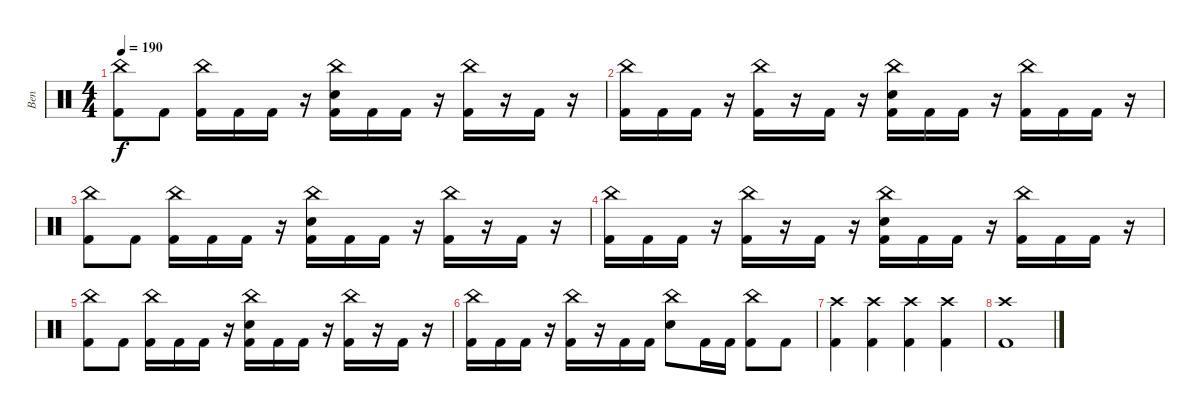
\track ("Ben" "Ben") {instrument percussion}
\staff {score}
\articulation defaults
\ts (4 4)
\tempo 190
\clef neutral
\ks c
("China (hit)" "Kick (hit) 2").8{dy f} "Kick (hit) 2".8 ("China (hit)" "Kick (hit) 2").16 "Kick (hit) 2".16 "Kick (hit) 2".16 r.16 ("China (hit)" "Electric Snare (hit)" "Kick (hit) 2").16 "Kick (hit) 2".16 "Kick (hit) 2".16 r.16 ("China (hit)" "Kick (hit) 2").16 r.16 "Kick (hit) 2".16 r.16 |
("China (hit)" "Kick (hit) 2").16 "Kick (hit) 2".16 "Kick (hit) 2".16 r.16 ("China (hit)" "Kick (hit) 2").16 r.16 "Kick (hit) 2".16 r.16 ("China (hit)" "Electric Snare (hit)" "Kick (hit) 2").16 "Kick (hit) 2".16 "Kick (hit) 2".16 r.16 ("China (hit)" "Kick (hit) 2").16 "Kick (hit) 2".16 "Kick (hit) 2".16 r.16 |
("China (hit)" "Kick (hit) 2").8 "Kick (hit) 2".8 ("China (hit)" "Kick (hit) 2").16 "Kick (hit) 2".16 "Kick (hit) 2".16 r.16 ("China (hit)" "Electric Snare (hit)" "Kick (hit) 2").16 "Kick (hit) 2".16 "Kick (hit) 2".16 r.16 ("China (hit)" "Kick (hit) 2").16 r.16 "Kick (hit) 2".16 r.16 |
("China (hit)" "Kick (hit) 2").16 "Kick (hit) 2".16 "Kick (hit) 2".16 r.16 ("China (hit)" "Kick (hit) 2").16 r.16 "Kick (hit) 2".16 r.16 ("China (hit)" "Electric Snare (hit)" "Kick (hit) 2").16 "Kick (hit) 2".16 "Kick (hit) 2".16 r.16 ("China (hit)" "Kick (hit) 2").16 "Kick (hit) 2".16 "Kick (hit) 2".16 r.16 |
("China (hit)" "Kick (hit) 2").8 "Kick (hit) 2".8 ("China (hit)" "Kick (hit) 2").16 "Kick (hit) 2".16 "Kick (hit) 2".16 r.16 ("China (hit)" "Electric Snare (hit)" "Kick (hit) 2").16 "Kick (hit) 2".16 "Kick (hit) 2".16 r.16 ("China (hit)" "Kick (hit) 2").16 r.16 "Kick (hit) 2".16 r.16 |
("China (hit)" "Kick (hit) 2").16 "Kick (hit) 2".16 "Kick (hit) 2".16 r.16 ("China (hit)" "Kick (hit) 2").16 r.16 "Kick (hit) 2".16 "Kick (hit) 2".16 ("China (hit)" "Electric Snare (hit)").8 "Kick (hit) 2".16 "Kick (hit) 2".16 ("China (hit)" "Kick (hit) 2").8 "Kick (hit) 2".8 |
("Crash high (hit)" "Kick (hit) 2").4 ("Crash high (hit)" "Kick (hit) 2").4 ("Crash high (hit)" "Kick (hit) 2").4 ("Crash high (hit)" "Kick (hit) 2").4 |
("Crash high (hit)" "Kick (hit) 2").1
